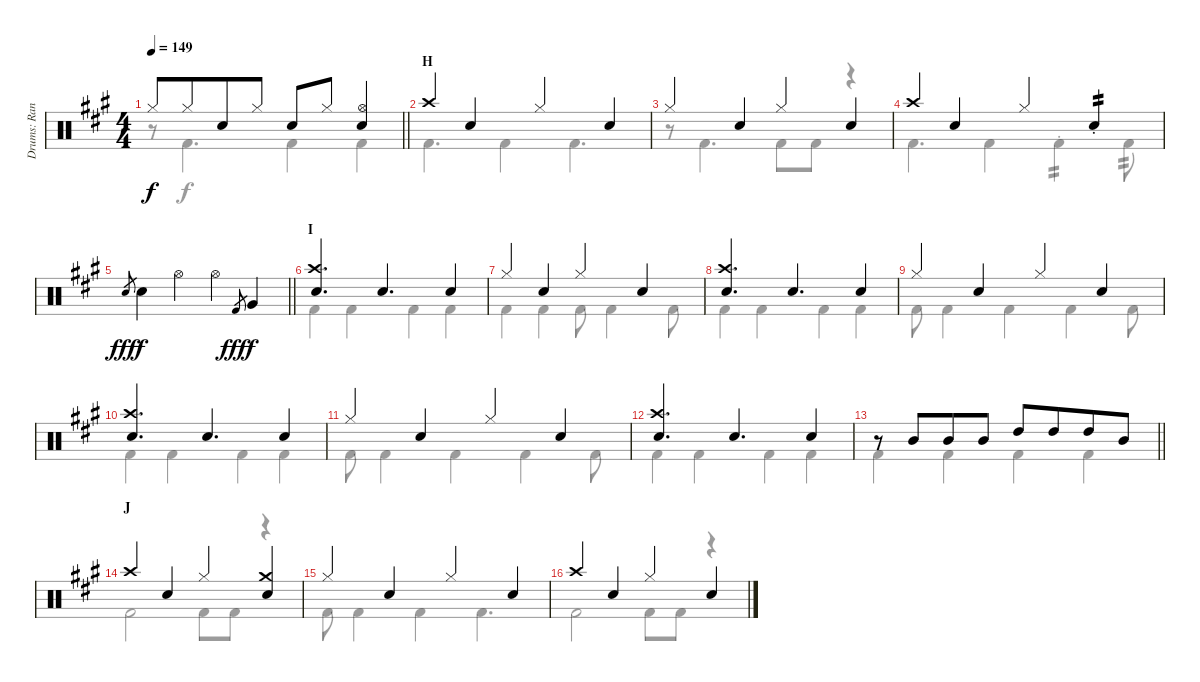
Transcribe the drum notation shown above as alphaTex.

\track ("Drums: Randy" "Drums: Ran") {instrument percussion}
\staff {score}
\articulation defaults
\voice
\ts (4 4)
\tempo 149
\clef neutral
\barLineRight lightlight
\ks a "Hi-Hat (closed)".8{dy f} "Hi-Hat (closed)".8{beam merge} "Snare (hit) 2".8 "Hi-Hat (closed)".8 "Snare (hit) 2".8 "Hi-Hat (closed)".8
("Hi-Hat (open)" "Snare (hit) 2").4 |
\section ("" "H")
"Crash high (hit)".4 "Snare (hit) 2".4 "Hi-Hat (closed)".4 "Snare (hit) 2".4 |
"Hi-Hat (closed)".4 "Snare (hit) 2".4 "Hi-Hat (closed)".4 "Snare (hit) 2".4 |
"Crash high (hit)".4 "Snare (hit) 2".4 "Hi-Hat (closed)".4 "Snare (hit) 2"{st}.4{tp 2} |
\barLineRight lightlight "Snare (hit) 2".8{gr dy fff} "Snare (hit) 2".4{dy f} "Hi-Hat (open)".4 "Hi-Hat (open)".4 "Kick (hit) 2".8{gr dy fff} "Very Low Tom (hit)".4{dy f}
|
\section ("" "I")
("Crash high (hit)" "Snare (hit) 2").4{d} "Snare (hit) 2".4{d} "Snare (hit) 2".4 |
"Hi-Hat (closed)".4 "Snare (hit) 2".4 "Hi-Hat (closed)".4 "Snare (hit) 2".4 |
("Crash high (hit)" "Snare (hit) 2").4{d} "Snare (hit) 2".4{d} "Snare (hit) 2".4 |
"Hi-Hat (closed)".4 "Snare (hit) 2".4 "Hi-Hat (closed)".4 "Snare (hit) 2".4 |
("Crash high (hit)" "Snare (hit) 2").4{d} "Snare (hit) 2".4{d} "Snare (hit) 2".4 |
"Hi-Hat (closed)".4 "Snare (hit) 2".4 "Hi-Hat (closed)".4 "Snare (hit) 2".4 |
("Crash high (hit)" "Snare (hit) 2").4{d} "Snare (hit) 2".4{d} "Snare (hit) 2".4 |
\barLineRight lightlight
r.8 "Mid Tom (hit)".8{beam merge} "Mid Tom (hit)".8 "Mid Tom (hit)".8 "High Tom (hit)".8 "High Tom (hit)".8{beam merge} "High Tom (hit)".8 "Mid Tom (hit)".8 |
\section ("" "J")
"Crash high (hit)".4 "Snare (hit) 2".4 "Hi-Hat (closed)".4 ("Crash medium (hit)" "Snare (hit) 2").4 |
"Hi-Hat (closed)".4 "Snare (hit) 2".4 "Hi-Hat (closed)".4 "Snare (hit) 2".4 |
"Crash high (hit)".4 "Snare (hit) 2".4 "Hi-Hat (closed)".4 "Snare (hit) 2".4
\voice
\clef neutral
\ottava regular
\simile none
\barLineRight lightlight
\ks a
r.8{dy f} "Kick (hit) 2".4{d} "Kick (hit) 2".4 "Kick (hit) 2".4 |
"Kick (hit) 2".4{d} "Kick (hit) 2".4 "Kick (hit) 2".4{d} |
r.8 "Kick (hit) 2".4{d} "Kick (hit) 2".8 "Kick (hit) 2".8 r.4 |
"Kick (hit) 2".4{d} "Kick (hit) 2".4 "Kick (hit) 2"{st}.4{tp 2} "Kick (hit) 2".8{tp 2} |
\barLineRight lightlight
|
"Kick (hit) 2".4 "Kick (hit) 2".4 "Kick (hit) 2".4 "Kick (hit) 2".4 |
"Kick (hit) 2".4 "Kick (hit) 2".4 "Kick (hit) 2".8 "Kick (hit) 2".4 "Kick (hit) 2".8 |
"Kick (hit) 2".4 "Kick (hit) 2".4 "Kick (hit) 2".4 "Kick (hit) 2".4 |
"Kick (hit) 2".8 "Kick (hit) 2".4 "Kick (hit) 2".4 "Kick (hit) 2".4 "Kick (hit) 2".8 |
"Kick (hit) 2".4 "Kick (hit) 2".4 "Kick (hit) 2".4 "Kick (hit) 2".4 |
"Kick (hit) 2".8 "Kick (hit) 2".4 "Kick (hit) 2".4 "Kick (hit) 2".4 "Kick (hit) 2".8 |
"Kick (hit) 2".4 "Kick (hit) 2".4 "Kick (hit) 2".4 "Kick (hit) 2".4 |
\barLineRight lightlight "Kick (hit) 2".4 "Kick (hit) 2".4 "Kick (hit) 2".4 "Kick (hit) 2".4
|
"Kick (hit) 2".2 "Kick (hit) 2".8 "Kick (hit) 2".8 r.4 |
"Kick (hit) 2".8 "Kick (hit) 2".4 "Kick (hit) 2".4 "Kick (hit) 2".4{d} |
"Kick (hit) 2".2 "Kick (hit) 2".8 "Kick (hit) 2".8 r.4
